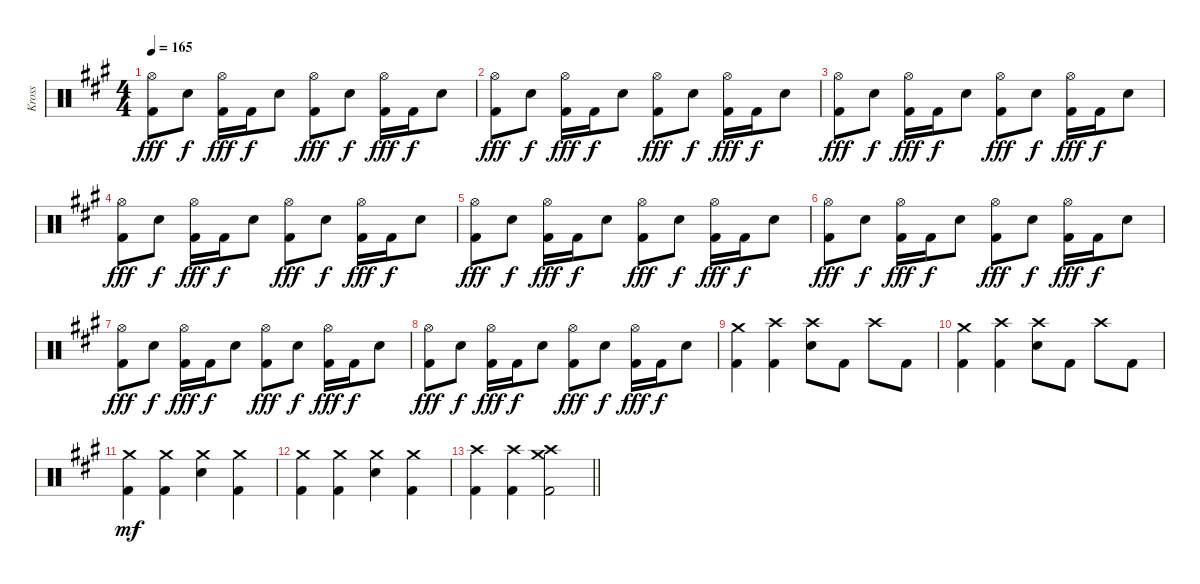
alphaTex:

\track ("Kross" "Kross") {instrument percussion}
\staff {score}
\articulation defaults
\ts (4 4)
\tempo 165
\clef neutral
\ks a
("Hi-Hat (open)" "Kick (hit) 2").8{dy fff} "Snare (hit) 2".8{dy f} ("Hi-Hat (open)" "Kick (hit) 2").16{dy fff} "Kick (hit) 2".16{dy f} "Snare (hit) 2".8 ("Hi-Hat (open)" "Kick (hit) 2").8{dy fff} "Snare (hit) 2".8{dy f} ("Hi-Hat (open)" "Kick (hit) 2").16{dy fff} "Kick (hit) 2".16{dy f} "Snare (hit) 2".8 |
("Hi-Hat (open)" "Kick (hit) 2").8{dy fff} "Snare (hit) 2".8{dy f} ("Hi-Hat (open)" "Kick (hit) 2").16{dy fff} "Kick (hit) 2".16{dy f} "Snare (hit) 2".8 ("Hi-Hat (open)" "Kick (hit) 2").8{dy fff} "Snare (hit) 2".8{dy f} ("Hi-Hat (open)" "Kick (hit) 2").16{dy fff} "Kick (hit) 2".16{dy f} "Snare (hit) 2".8 |
("Hi-Hat (open)" "Kick (hit) 2").8{dy fff} "Snare (hit) 2".8{dy f} ("Hi-Hat (open)" "Kick (hit) 2").16{dy fff} "Kick (hit) 2".16{dy f} "Snare (hit) 2".8 ("Hi-Hat (open)" "Kick (hit) 2").8{dy fff} "Snare (hit) 2".8{dy f} ("Hi-Hat (open)" "Kick (hit) 2").16{dy fff} "Kick (hit) 2".16{dy f} "Snare (hit) 2".8 |
("Hi-Hat (open)" "Kick (hit) 2").8{dy fff} "Snare (hit) 2".8{dy f} ("Hi-Hat (open)" "Kick (hit) 2").16{dy fff} "Kick (hit) 2".16{dy f} "Snare (hit) 2".8 ("Hi-Hat (open)" "Kick (hit) 2").8{dy fff} "Snare (hit) 2".8{dy f} ("Hi-Hat (open)" "Kick (hit) 2").16{dy fff} "Kick (hit) 2".16{dy f} "Snare (hit) 2".8 |
("Hi-Hat (open)" "Kick (hit) 2").8{dy fff} "Snare (hit) 2".8{dy f} ("Hi-Hat (open)" "Kick (hit) 2").16{dy fff} "Kick (hit) 2".16{dy f} "Snare (hit) 2".8 ("Hi-Hat (open)" "Kick (hit) 2").8{dy fff} "Snare (hit) 2".8{dy f} ("Hi-Hat (open)" "Kick (hit) 2").16{dy fff} "Kick (hit) 2".16{dy f} "Snare (hit) 2".8 |
("Hi-Hat (open)" "Kick (hit) 2").8{dy fff} "Snare (hit) 2".8{dy f} ("Hi-Hat (open)" "Kick (hit) 2").16{dy fff} "Kick (hit) 2".16{dy f} "Snare (hit) 2".8 ("Hi-Hat (open)" "Kick (hit) 2").8{dy fff} "Snare (hit) 2".8{dy f} ("Hi-Hat (open)" "Kick (hit) 2").16{dy fff} "Kick (hit) 2".16{dy f} "Snare (hit) 2".8 |
("Hi-Hat (open)" "Kick (hit) 2").8{dy fff} "Snare (hit) 2".8{dy f} ("Hi-Hat (open)" "Kick (hit) 2").16{dy fff} "Kick (hit) 2".16{dy f} "Snare (hit) 2".8 ("Hi-Hat (open)" "Kick (hit) 2").8{dy fff} "Snare (hit) 2".8{dy f} ("Hi-Hat (open)" "Kick (hit) 2").16{dy fff} "Kick (hit) 2".16{dy f} "Snare (hit) 2".8 |
("Hi-Hat (open)" "Kick (hit) 2").8{dy fff} "Snare (hit) 2".8{dy f} ("Hi-Hat (open)" "Kick (hit) 2").16{dy fff} "Kick (hit) 2".16{dy f} "Snare (hit) 2".8 ("Hi-Hat (open)" "Kick (hit) 2").8{dy fff} "Snare (hit) 2".8{dy f} ("Hi-Hat (open)" "Kick (hit) 2").16{dy fff} "Kick (hit) 2".16{dy f} "Snare (hit) 2".8 |
("Crash medium (hit)" "Kick (hit) 2").4 ("Crash high (hit)" "Kick (hit) 2").4 ("Crash high (hit)" "Snare (hit) 2").8 "Kick (hit) 2".8 "Crash high (hit)".8 "Kick (hit) 2".8 |
("Crash medium (hit)" "Kick (hit) 2").4 ("Crash high (hit)" "Kick (hit) 2").4 ("Crash high (hit)" "Snare (hit) 2").8 "Kick (hit) 2".8 "Crash high (hit)".8 "Kick (hit) 2".8 |
("Crash medium (hit)" "Kick (hit) 2").4{dy mf} ("Crash medium (hit)" "Kick (hit) 2").4 ("Crash medium (hit)" "Snare (hit) 2").4 ("Crash medium (hit)" "Kick (hit) 2").4 |
("Crash medium (hit)" "Kick (hit) 2").4 ("Crash medium (hit)" "Kick (hit) 2").4 ("Crash medium (hit)" "Snare (hit) 2").4 ("Crash medium (hit)" "Kick (hit) 2").4 |
\barLineRight lightlight
("Crash high (hit)" "Kick (hit) 2").4 ("Crash high (hit)" "Kick (hit) 2").4 ("Crash medium (hit)" "Crash high (hit)" "Kick (hit) 2").2
